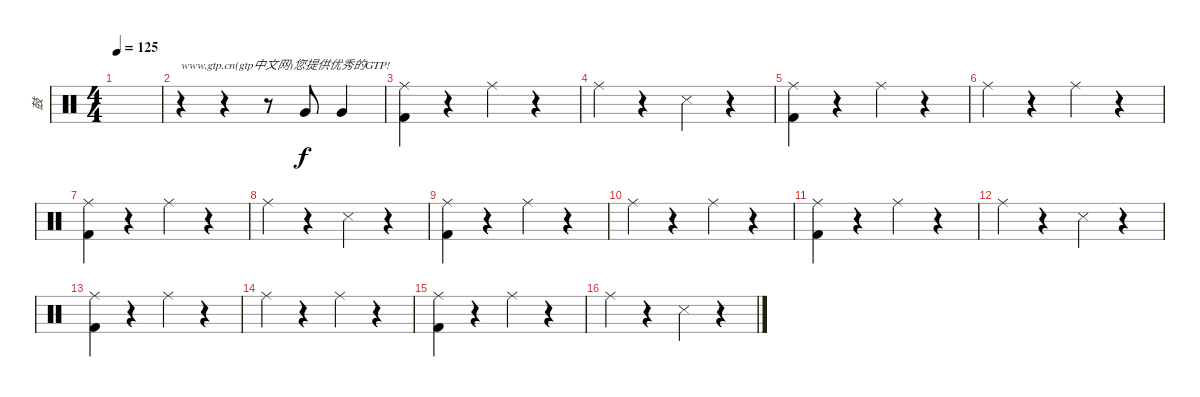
\track ("鼓" "鼓") {instrument percussion}
\staff {score}
\articulation defaults
\ts (4 4)
\tempo 125
\clef neutral
\ks c
|
r.4{txt "www.gtp.cn(gtp中文网)您提供优秀的GTP!"} r.4 r.8 "Very Low Tom (hit)".8 "Very Low Tom (hit)".4 |
("Ride (middle)" "Kick (hit) 2").4 r.4 "Ride (middle)".4 r.4 |
"Ride (middle)".4 r.4 "Metronome (hit)".4 r.4 |
("Ride (middle)" "Kick (hit) 2").4 r.4 "Ride (middle)".4 r.4 |
"Ride (middle)".4 r.4 "Ride (middle)".4 r.4 |
("Ride (middle)" "Kick (hit) 2").4 r.4 "Ride (middle)".4 r.4 |
"Ride (middle)".4 r.4 "Metronome (hit)".4 r.4 |
("Ride (middle)" "Kick (hit) 2").4 r.4 "Ride (middle)".4 r.4 |
"Ride (middle)".4 r.4 "Ride (middle)".4 r.4 |
("Ride (middle)" "Kick (hit) 2").4 r.4 "Ride (middle)".4 r.4 |
"Ride (middle)".4 r.4 "Metronome (hit)".4 r.4 |
("Ride (middle)" "Kick (hit) 2").4 r.4 "Ride (middle)".4 r.4 |
"Ride (middle)".4 r.4 "Ride (middle)".4 r.4 |
("Ride (middle)" "Kick (hit) 2").4 r.4 "Ride (middle)".4 r.4 |
"Ride (middle)".4 r.4 "Metronome (hit)".4 r.4
